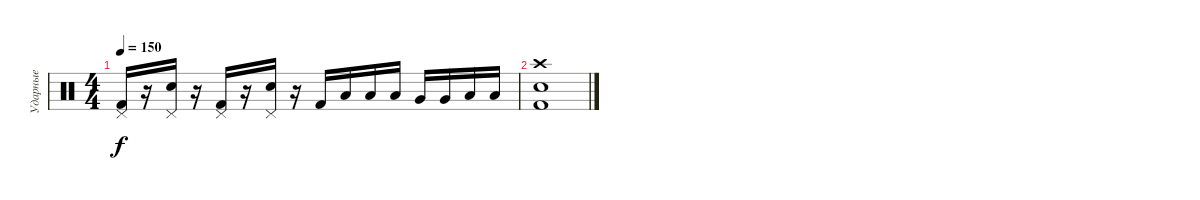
\track ("Ударные" "Ударные") {instrument percussion}
\staff {score}
\articulation defaults
\ts (4 4)
\tempo 150
\clef neutral
\ks c
("Kick (hit) 2" "Pedal Hi-Hat (hit)").16{dy f} r.16 ("Electric Snare (hit)" "Pedal Hi-Hat (hit)").16 r.16 ("Kick (hit) 2" "Pedal Hi-Hat (hit)").16 r.16 ("Electric Snare (hit)" "Pedal Hi-Hat (hit)").16 r.16 "Kick (hit) 2".16 "Low Tom (hit)".16 "Low Tom (hit)".16 "Low Tom (hit)".16 "Very Low Tom (hit)".16 "Very Low Tom (hit)".16 "Low Floor Tom (hit)".16 "Low Floor Tom (hit)".16 |
("Kick (hit) 2" "Electric Snare (hit)" "Crash high (hit)").1
